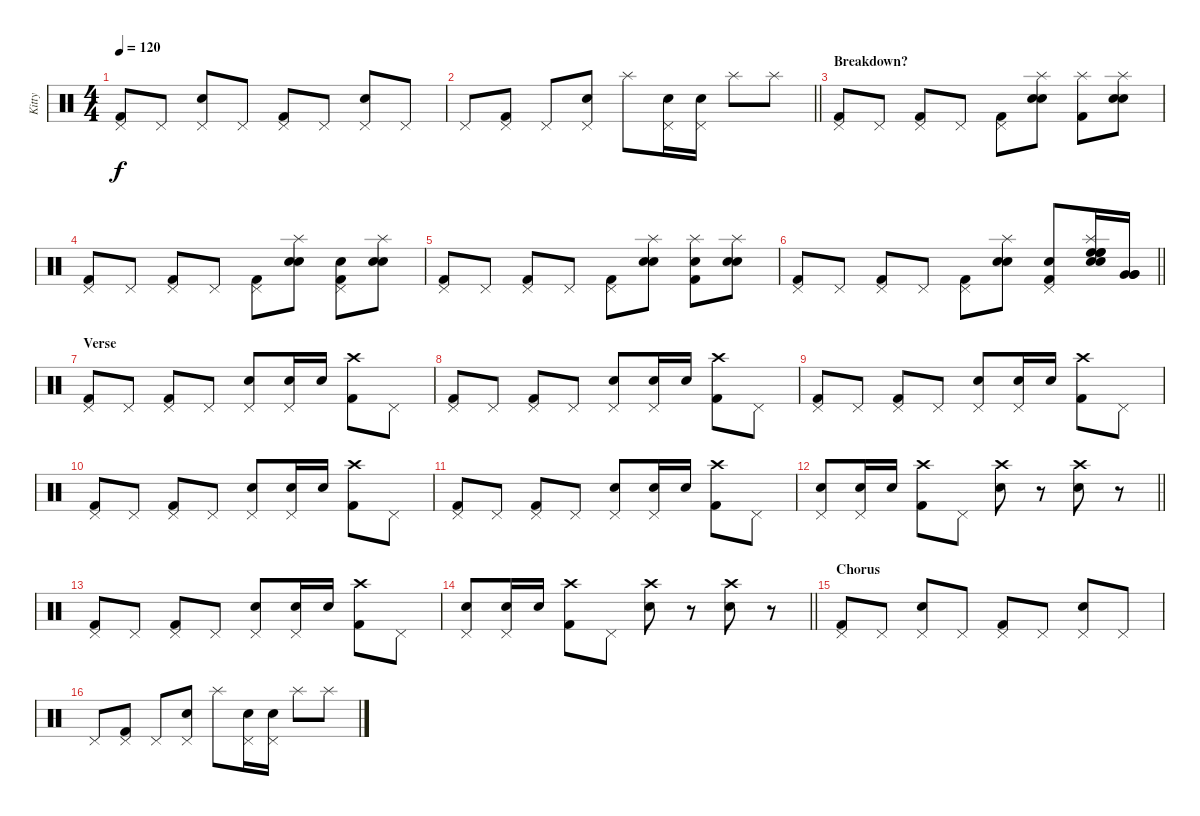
\track ("Kitty" "Kitty") {instrument percussion}
\staff {score}
\articulation defaults
\ts (4 4)
\tempo 120
\clef neutral
\ks c
("Pedal Hi-Hat (hit)" "Kick (hit) 2").8{dy f} "Pedal Hi-Hat (hit)".8 ("Pedal Hi-Hat (hit)" "Electric Snare (hit)").8 "Pedal Hi-Hat (hit)".8 ("Pedal Hi-Hat (hit)" "Kick (hit) 2").8 "Pedal Hi-Hat (hit)".8 ("Pedal Hi-Hat (hit)" "Electric Snare (hit)").8 "Pedal Hi-Hat (hit)".8 |
\barLineRight lightlight "Pedal Hi-Hat (hit)".8
("Pedal Hi-Hat (hit)" "Kick (hit) 2").8 "Pedal Hi-Hat (hit)".8 ("Pedal Hi-Hat (hit)" "Electric Snare (hit)").8 "Splash (hit)".8 ("Pedal Hi-Hat (hit)" "Electric Snare (hit)").16 ("Pedal Hi-Hat (hit)" "Electric Snare (hit)").16 "Splash (hit)".8 "Splash (hit)".8 |
\section ("" "Breakdown?")
("Pedal Hi-Hat (hit)" "Kick (hit) 2").8 "Pedal Hi-Hat (hit)".8 ("Pedal Hi-Hat (hit)" "Kick (hit) 2").8 "Pedal Hi-Hat (hit)".8 ("Pedal Hi-Hat (hit)" "Kick (hit) 2").8 ("Splash (hit)" "Electric Snare (hit)" "Electric Snare (hit)").8 ("Splash (hit)" "Kick (hit) 2").8 ("Splash (hit)" "Electric Snare (hit)" "Electric Snare (hit)").8 |
("Pedal Hi-Hat (hit)" "Kick (hit) 2").8 "Pedal Hi-Hat (hit)".8 ("Pedal Hi-Hat (hit)" "Kick (hit) 2").8 "Pedal Hi-Hat (hit)".8 ("Pedal Hi-Hat (hit)" "Kick (hit) 2").8 ("Splash (hit)" "Electric Snare (hit)" "Electric Snare (hit)").8 ("Pedal Hi-Hat (hit)" "Kick (hit) 2" "Electric Snare (hit)").8 ("Splash (hit)" "Electric Snare (hit)" "Electric Snare (hit)").8 |
("Pedal Hi-Hat (hit)" "Kick (hit) 2").8 "Pedal Hi-Hat (hit)".8 ("Pedal Hi-Hat (hit)" "Kick (hit) 2").8 "Pedal Hi-Hat (hit)".8 ("Pedal Hi-Hat (hit)" "Kick (hit) 2").8 ("Splash (hit)" "Electric Snare (hit)" "Electric Snare (hit)").8 ("Splash (hit)" "Kick (hit) 2" "Electric Snare (hit)").8 ("Splash (hit)" "Electric Snare (hit)" "Electric Snare (hit)").8 |
\barLineRight lightlight
("Pedal Hi-Hat (hit)" "Kick (hit) 2").8 "Pedal Hi-Hat (hit)".8 ("Pedal Hi-Hat (hit)" "Kick (hit) 2").8 "Pedal Hi-Hat (hit)".8 ("Pedal Hi-Hat (hit)" "Kick (hit) 2").8 ("Splash (hit)" "Electric Snare (hit)" "Electric Snare (hit)").8 ("Pedal Hi-Hat (hit)" "Kick (hit) 2" "Electric Snare (hit)").8 ("Splash (hit)" "Electric Snare (hit)" "High Floor Tom (hit)" "High Floor Tom (hit)" "High Floor Tom (hit)" "Electric Snare (hit)").16 ("Very Low Tom (hit)" "Very Low Tom (hit)" "Very Low Tom (hit)").16 |
\section ("" "Verse")
("Pedal Hi-Hat (hit)" "Kick (hit) 2").8 "Pedal Hi-Hat (hit)".8 ("Pedal Hi-Hat (hit)" "Kick (hit) 2").8 "Pedal Hi-Hat (hit)".8 ("Pedal Hi-Hat (hit)" "Electric Snare (hit)").8 ("Pedal Hi-Hat (hit)" "Electric Snare (hit)").16 "Electric Snare (hit)".16 ("Crash high (hit)" "Kick (hit) 2").8 "Pedal Hi-Hat (hit)".8 |
("Pedal Hi-Hat (hit)" "Kick (hit) 2").8 "Pedal Hi-Hat (hit)".8 ("Pedal Hi-Hat (hit)" "Kick (hit) 2").8 "Pedal Hi-Hat (hit)".8 ("Pedal Hi-Hat (hit)" "Electric Snare (hit)").8 ("Pedal Hi-Hat (hit)" "Electric Snare (hit)").16 "Electric Snare (hit)".16 ("Crash high (hit)" "Kick (hit) 2").8 "Pedal Hi-Hat (hit)".8 |
("Pedal Hi-Hat (hit)" "Kick (hit) 2").8 "Pedal Hi-Hat (hit)".8 ("Pedal Hi-Hat (hit)" "Kick (hit) 2").8 "Pedal Hi-Hat (hit)".8 ("Pedal Hi-Hat (hit)" "Electric Snare (hit)").8 ("Pedal Hi-Hat (hit)" "Electric Snare (hit)").16 "Electric Snare (hit)".16 ("Crash high (hit)" "Kick (hit) 2").8 "Pedal Hi-Hat (hit)".8 |
("Pedal Hi-Hat (hit)" "Kick (hit) 2").8 "Pedal Hi-Hat (hit)".8 ("Pedal Hi-Hat (hit)" "Kick (hit) 2").8 "Pedal Hi-Hat (hit)".8 ("Pedal Hi-Hat (hit)" "Electric Snare (hit)").8 ("Pedal Hi-Hat (hit)" "Electric Snare (hit)").16 "Electric Snare (hit)".16 ("Crash high (hit)" "Kick (hit) 2").8 "Pedal Hi-Hat (hit)".8 |
("Pedal Hi-Hat (hit)" "Kick (hit) 2").8 "Pedal Hi-Hat (hit)".8 ("Pedal Hi-Hat (hit)" "Kick (hit) 2").8 "Pedal Hi-Hat (hit)".8 ("Pedal Hi-Hat (hit)" "Electric Snare (hit)").8 ("Pedal Hi-Hat (hit)" "Electric Snare (hit)").16 "Electric Snare (hit)".16 ("Crash high (hit)" "Kick (hit) 2").8 "Pedal Hi-Hat (hit)".8 |
\barLineRight lightlight
("Pedal Hi-Hat (hit)" "Electric Snare (hit)").8 ("Pedal Hi-Hat (hit)" "Electric Snare (hit)").16 "Electric Snare (hit)".16 ("Crash high (hit)" "Kick (hit) 2").8 "Pedal Hi-Hat (hit)".8 ("Crash high (hit)" "Electric Snare (hit)").8 r.8 ("Crash high (hit)" "Electric Snare (hit)").8 r.8 |
("Pedal Hi-Hat (hit)" "Kick (hit) 2").8 "Pedal Hi-Hat (hit)".8 ("Pedal Hi-Hat (hit)" "Kick (hit) 2").8 "Pedal Hi-Hat (hit)".8 ("Pedal Hi-Hat (hit)" "Electric Snare (hit)").8 ("Pedal Hi-Hat (hit)" "Electric Snare (hit)").16 "Electric Snare (hit)".16 ("Crash high (hit)" "Kick (hit) 2").8 "Pedal Hi-Hat (hit)".8 |
\barLineRight lightlight
("Pedal Hi-Hat (hit)" "Electric Snare (hit)").8 ("Pedal Hi-Hat (hit)" "Electric Snare (hit)").16 "Electric Snare (hit)".16 ("Crash high (hit)" "Kick (hit) 2").8 "Pedal Hi-Hat (hit)".8 ("Crash high (hit)" "Electric Snare (hit)").8 r.8 ("Crash high (hit)" "Electric Snare (hit)").8 r.8 |
\section ("" "Chorus")
("Pedal Hi-Hat (hit)" "Kick (hit) 2").8 "Pedal Hi-Hat (hit)".8 ("Pedal Hi-Hat (hit)" "Electric Snare (hit)").8 "Pedal Hi-Hat (hit)".8 ("Pedal Hi-Hat (hit)" "Kick (hit) 2").8 "Pedal Hi-Hat (hit)".8 ("Pedal Hi-Hat (hit)" "Electric Snare (hit)").8 "Pedal Hi-Hat (hit)".8 |
"Pedal Hi-Hat (hit)".8 ("Pedal Hi-Hat (hit)" "Kick (hit) 2").8 "Pedal Hi-Hat (hit)".8 ("Pedal Hi-Hat (hit)" "Electric Snare (hit)").8 "Splash (hit)".8 ("Pedal Hi-Hat (hit)" "Electric Snare (hit)").16 ("Pedal Hi-Hat (hit)" "Electric Snare (hit)").16 "Splash (hit)".8 "Splash (hit)".8
